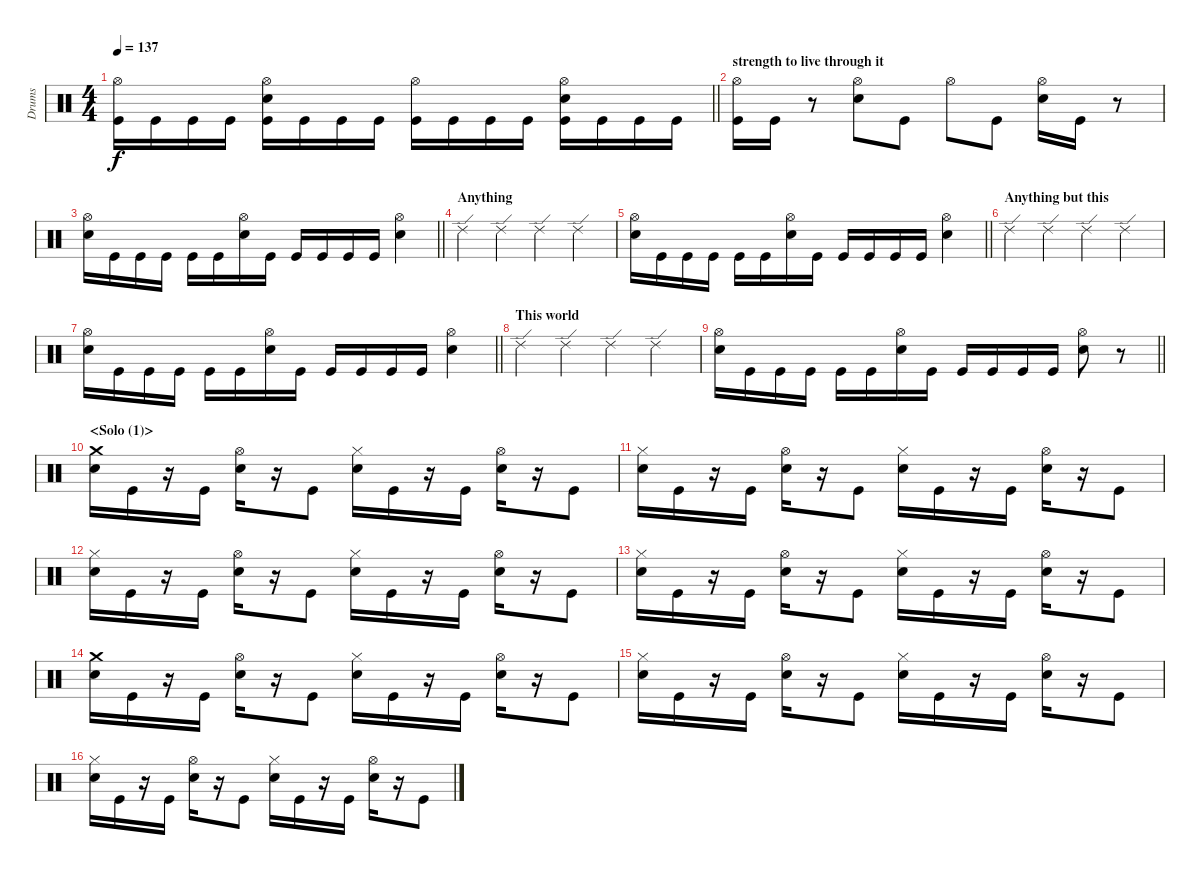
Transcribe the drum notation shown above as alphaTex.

\track ("Drums" "Drums") {instrument percussion}
\staff {score}
\articulation defaults
\ts (4 4)
\tempo 137
\clef neutral
\barLineRight lightlight
\ks c
("Hi-Hat (open)" "Kick (hit)").16{dy f} "Kick (hit)".16 "Kick (hit)".16 "Kick (hit)".16 ("Hi-Hat (open)" "Snare (hit) 2" "Kick (hit)").16 "Kick (hit)".16 "Kick (hit)".16 "Kick (hit)".16 ("Hi-Hat (open)" "Kick (hit)").16 "Kick (hit)".16 "Kick (hit)".16 "Kick (hit)".16 ("Hi-Hat (open)" "Snare (hit) 2" "Kick (hit)").16 "Kick (hit)".16 "Kick (hit)".16 "Kick (hit)".16 |
\section ("" "strength to live through it")
("Hi-Hat (open)" "Kick (hit)").16 "Kick (hit)".16 r.8 ("Hi-Hat (open)" "Snare (hit) 2").8 "Kick (hit)".8 "Hi-Hat (open)".8 "Kick (hit)".8 ("Hi-Hat (open)" "Snare (hit) 2").16 "Kick (hit)".16 r.8 |
\barLineRight lightlight
("Hi-Hat (open)" "Snare (hit) 2").16 "Kick (hit)".16 "Kick (hit)".16 "Kick (hit)".16 "Kick (hit)".16 "Kick (hit)".16 ("Hi-Hat (open)" "Snare (hit) 2").16 "Kick (hit)".16 "Kick (hit)".16 "Kick (hit)".16 "Kick (hit)".16 "Kick (hit)".16 ("Hi-Hat (open)" "Snare (hit) 2").4 |
\section ("" "Anything")
"Ride (edge) 2".4 "Ride (edge) 2".4 "Ride (edge) 2".4 "Ride (edge) 2".4 |
\barLineRight lightlight
("Hi-Hat (open)" "Snare (hit) 2").16 "Kick (hit)".16 "Kick (hit)".16 "Kick (hit)".16 "Kick (hit)".16 "Kick (hit)".16 ("Hi-Hat (open)" "Snare (hit) 2").16 "Kick (hit)".16 "Kick (hit)".16 "Kick (hit)".16 "Kick (hit)".16 "Kick (hit)".16 ("Hi-Hat (open)" "Snare (hit) 2").4 |
\section ("" "Anything but this")
"Ride (edge) 2".4 "Ride (edge) 2".4 "Ride (edge) 2".4 "Ride (edge) 2".4 |
\barLineRight lightlight
("Hi-Hat (open)" "Snare (hit) 2").16 "Kick (hit)".16 "Kick (hit)".16 "Kick (hit)".16 "Kick (hit)".16 "Kick (hit)".16 ("Hi-Hat (open)" "Snare (hit) 2").16 "Kick (hit)".16 "Kick (hit)".16 "Kick (hit)".16 "Kick (hit)".16 "Kick (hit)".16 ("Hi-Hat (open)" "Snare (hit) 2").4 |
\section ("" "This world")
"Ride (edge) 2".4 "Ride (edge) 2".4 "Ride (edge) 2".4 "Ride (edge) 2".4 |
\barLineRight lightlight
("Hi-Hat (open)" "Snare (hit) 2").16 "Kick (hit)".16 "Kick (hit)".16 "Kick (hit)".16 "Kick (hit)".16 "Kick (hit)".16 ("Hi-Hat (open)" "Snare (hit) 2").16 "Kick (hit)".16 "Kick (hit)".16 "Kick (hit)".16 "Kick (hit)".16 "Kick (hit)".16 ("Hi-Hat (open)" "Snare (hit) 2").8 r.8 |
\section ("" "<Solo (1)>")
("Crash medium (hit)" "Snare (hit) 2").16 "Kick (hit)".16 r.16 "Kick (hit)".16 ("Hi-Hat (open)" "Snare (hit) 2").16 r.16 "Kick (hit)".8 ("Hi-Hat (closed)" "Snare (hit) 2").16 "Kick (hit)".16 r.16 "Kick (hit)".16 ("Hi-Hat (open)" "Snare (hit) 2").16 r.16 "Kick (hit)".8 |
("Hi-Hat (closed)" "Snare (hit) 2").16 "Kick (hit)".16 r.16 "Kick (hit)".16 ("Hi-Hat (open)" "Snare (hit) 2").16 r.16 "Kick (hit)".8 ("Hi-Hat (closed)" "Snare (hit) 2").16 "Kick (hit)".16 r.16 "Kick (hit)".16 ("Hi-Hat (open)" "Snare (hit) 2").16 r.16 "Kick (hit)".8 |
("Hi-Hat (closed)" "Snare (hit) 2").16 "Kick (hit)".16 r.16 "Kick (hit)".16 ("Hi-Hat (open)" "Snare (hit) 2").16 r.16 "Kick (hit)".8 ("Hi-Hat (closed)" "Snare (hit) 2").16 "Kick (hit)".16 r.16 "Kick (hit)".16 ("Hi-Hat (open)" "Snare (hit) 2").16 r.16 "Kick (hit)".8 |
("Hi-Hat (closed)" "Snare (hit) 2").16 "Kick (hit)".16 r.16 "Kick (hit)".16 ("Hi-Hat (open)" "Snare (hit) 2").16 r.16 "Kick (hit)".8 ("Hi-Hat (closed)" "Snare (hit) 2").16 "Kick (hit)".16 r.16 "Kick (hit)".16 ("Hi-Hat (open)" "Snare (hit) 2").16 r.16 "Kick (hit)".8 |
("Crash medium (hit)" "Snare (hit) 2").16 "Kick (hit)".16 r.16 "Kick (hit)".16 ("Hi-Hat (open)" "Snare (hit) 2").16 r.16 "Kick (hit)".8 ("Hi-Hat (closed)" "Snare (hit) 2").16 "Kick (hit)".16 r.16 "Kick (hit)".16 ("Hi-Hat (open)" "Snare (hit) 2").16 r.16 "Kick (hit)".8 |
("Hi-Hat (closed)" "Snare (hit) 2").16 "Kick (hit)".16 r.16 "Kick (hit)".16 ("Hi-Hat (open)" "Snare (hit) 2").16 r.16 "Kick (hit)".8 ("Hi-Hat (closed)" "Snare (hit) 2").16 "Kick (hit)".16 r.16 "Kick (hit)".16 ("Hi-Hat (open)" "Snare (hit) 2").16 r.16 "Kick (hit)".8 |
("Hi-Hat (closed)" "Snare (hit) 2").16 "Kick (hit)".16 r.16 "Kick (hit)".16 ("Hi-Hat (open)" "Snare (hit) 2").16 r.16 "Kick (hit)".8 ("Hi-Hat (closed)" "Snare (hit) 2").16 "Kick (hit)".16 r.16 "Kick (hit)".16 ("Hi-Hat (open)" "Snare (hit) 2").16 r.16 "Kick (hit)".8
